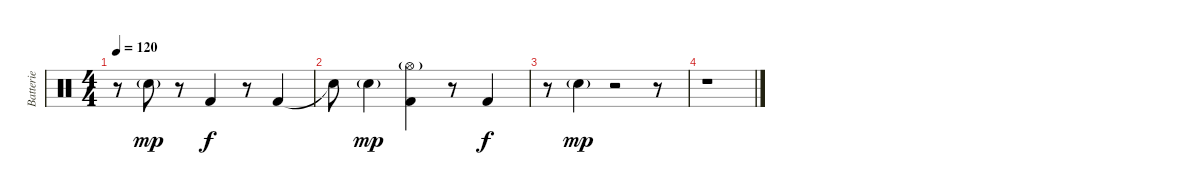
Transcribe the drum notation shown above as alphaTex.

\track ("Batterie" "Batterie") {instrument percussion}
\staff {score}
\articulation defaults
\ts (4 4)
\tempo 120
\clef neutral
\ks c
r.8{dy f} "Electric Snare (hit)"{g}.8{dy mp} r.8 "Kick (hit) 2".4{dy f} r.8 "Kick (hit) 2".4 |
"Snare (hit)"{t}.8 "Electric Snare (hit)"{g}.4{dy mp} ("Hi-Hat (open)"{g} "Kick (hit) 2").4 r.8 "Kick (hit) 2".4{dy f} |
r.8 "Electric Snare (hit)"{g}.4{dy mp} r.2 r.8 |
r.1
